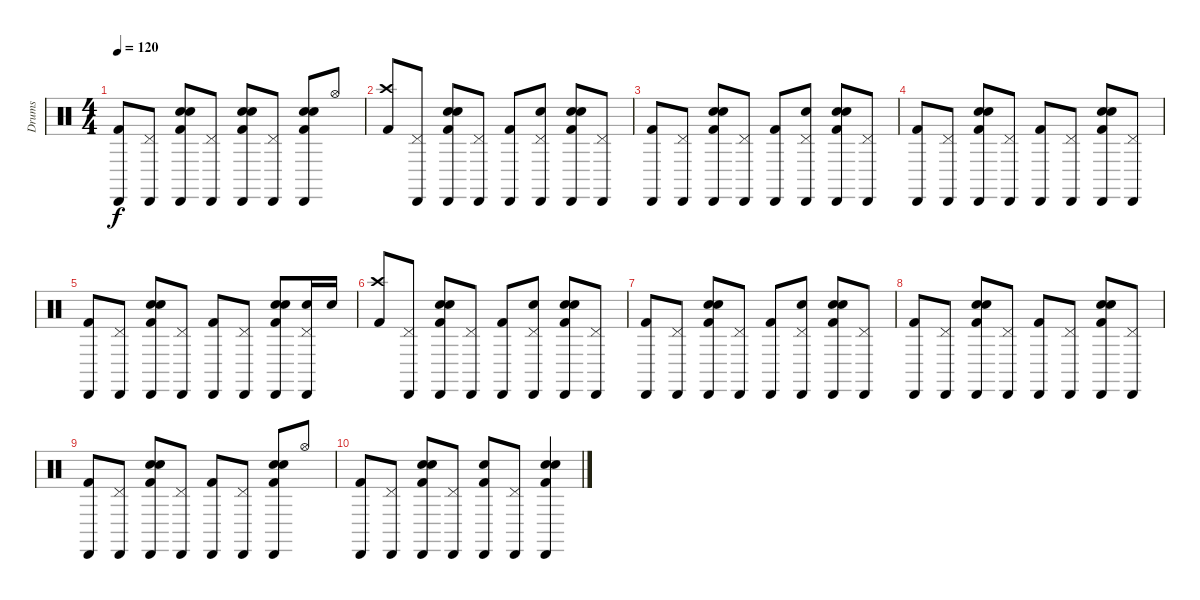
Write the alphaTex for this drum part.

\track ("Drums" "Drums") {instrument percussion}
\staff {score}
\articulation defaults
\ts (4 4)
\tempo 120
\clef neutral
\ks c
("Cabasa (hit)" "Kick (hit) 2").8{dy f} ("Cabasa (hit)" "Pedal Hi-Hat (hit)").8 ("Hand Clap (hit)" "Cabasa (hit)" "Electric Snare (hit)" "Kick (hit) 2").8 ("Cabasa (hit)" "Pedal Hi-Hat (hit)").8 ("Hand Clap (hit)" "Cabasa (hit)" "Electric Snare (hit)" "Kick (hit) 2").8 ("Cabasa (hit)" "Pedal Hi-Hat (hit)").8 ("Hand Clap (hit)" "Cabasa (hit)" "Electric Snare (hit)" "Kick (hit) 2").8 "Hi-Hat (open)".8 |
("Crash high (hit)" "Kick (hit) 2").8 ("Cabasa (hit)" "Pedal Hi-Hat (hit)").8 ("Hand Clap (hit)" "Cabasa (hit)" "Electric Snare (hit)" "Kick (hit) 2").8 ("Cabasa (hit)" "Pedal Hi-Hat (hit)").8 ("Cabasa (hit)" "Kick (hit) 2").8 ("Hand Clap (hit)" "Cabasa (hit)" "Pedal Hi-Hat (hit)").8 ("Hand Clap (hit)" "Cabasa (hit)" "Electric Snare (hit)" "Kick (hit) 2").8 ("Cabasa (hit)" "Pedal Hi-Hat (hit)").8 |
("Cabasa (hit)" "Kick (hit) 2").8 ("Cabasa (hit)" "Pedal Hi-Hat (hit)").8 ("Hand Clap (hit)" "Cabasa (hit)" "Electric Snare (hit)" "Kick (hit) 2").8 ("Cabasa (hit)" "Pedal Hi-Hat (hit)").8 ("Cabasa (hit)" "Kick (hit) 2").8 ("Hand Clap (hit)" "Cabasa (hit)" "Pedal Hi-Hat (hit)").8 ("Hand Clap (hit)" "Cabasa (hit)" "Electric Snare (hit)" "Kick (hit) 2").8 ("Cabasa (hit)" "Pedal Hi-Hat (hit)").8 |
("Cabasa (hit)" "Kick (hit) 2").8 ("Cabasa (hit)" "Pedal Hi-Hat (hit)").8 ("Hand Clap (hit)" "Cabasa (hit)" "Electric Snare (hit)" "Kick (hit) 2").8 ("Cabasa (hit)" "Pedal Hi-Hat (hit)").8 ("Cabasa (hit)" "Kick (hit) 2").8 ("Cabasa (hit)" "Pedal Hi-Hat (hit)").8 ("Hand Clap (hit)" "Cabasa (hit)" "Electric Snare (hit)" "Kick (hit) 2").8 ("Cabasa (hit)" "Pedal Hi-Hat (hit)").8 |
("Cabasa (hit)" "Kick (hit) 2").8 ("Cabasa (hit)" "Pedal Hi-Hat (hit)").8 ("Hand Clap (hit)" "Cabasa (hit)" "Electric Snare (hit)" "Kick (hit) 2").8 ("Cabasa (hit)" "Pedal Hi-Hat (hit)").8 ("Cabasa (hit)" "Kick (hit) 2").8 ("Cabasa (hit)" "Pedal Hi-Hat (hit)").8 ("Hand Clap (hit)" "Cabasa (hit)" "Electric Snare (hit)" "Kick (hit) 2").8 ("Cabasa (hit)" "Pedal Hi-Hat (hit)" "Electric Snare (hit)").16 "Electric Snare (hit)".16 |
("Crash high (hit)" "Kick (hit) 2").8 ("Cabasa (hit)" "Pedal Hi-Hat (hit)").8 ("Hand Clap (hit)" "Cabasa (hit)" "Electric Snare (hit)" "Kick (hit) 2").8 ("Cabasa (hit)" "Pedal Hi-Hat (hit)").8 ("Cabasa (hit)" "Kick (hit) 2").8 ("Hand Clap (hit)" "Cabasa (hit)" "Pedal Hi-Hat (hit)").8 ("Hand Clap (hit)" "Cabasa (hit)" "Electric Snare (hit)" "Kick (hit) 2").8 ("Cabasa (hit)" "Pedal Hi-Hat (hit)").8 |
("Cabasa (hit)" "Kick (hit) 2").8 ("Cabasa (hit)" "Pedal Hi-Hat (hit)").8 ("Hand Clap (hit)" "Cabasa (hit)" "Electric Snare (hit)" "Kick (hit) 2").8 ("Cabasa (hit)" "Pedal Hi-Hat (hit)").8 ("Cabasa (hit)" "Kick (hit) 2").8 ("Hand Clap (hit)" "Cabasa (hit)" "Pedal Hi-Hat (hit)").8 ("Hand Clap (hit)" "Cabasa (hit)" "Electric Snare (hit)" "Kick (hit) 2").8 ("Cabasa (hit)" "Pedal Hi-Hat (hit)").8 |
("Cabasa (hit)" "Kick (hit) 2").8 ("Cabasa (hit)" "Pedal Hi-Hat (hit)").8 ("Hand Clap (hit)" "Cabasa (hit)" "Electric Snare (hit)" "Kick (hit) 2").8 ("Cabasa (hit)" "Pedal Hi-Hat (hit)").8 ("Cabasa (hit)" "Kick (hit) 2").8 ("Cabasa (hit)" "Pedal Hi-Hat (hit)").8 ("Hand Clap (hit)" "Cabasa (hit)" "Electric Snare (hit)" "Kick (hit) 2").8 ("Cabasa (hit)" "Pedal Hi-Hat (hit)").8 |
("Cabasa (hit)" "Kick (hit) 2").8 ("Cabasa (hit)" "Pedal Hi-Hat (hit)").8 ("Hand Clap (hit)" "Cabasa (hit)" "Electric Snare (hit)" "Kick (hit) 2").8 ("Cabasa (hit)" "Pedal Hi-Hat (hit)").8 ("Cabasa (hit)" "Kick (hit) 2").8 ("Cabasa (hit)" "Pedal Hi-Hat (hit)").8 ("Hand Clap (hit)" "Cabasa (hit)" "Electric Snare (hit)" "Kick (hit) 2").8 "Hi-Hat (open)".8 |
("Cabasa (hit)" "Kick (hit) 2").8 ("Cabasa (hit)" "Pedal Hi-Hat (hit)").8 ("Hand Clap (hit)" "Cabasa (hit)" "Electric Snare (hit)" "Kick (hit) 2").8 ("Cabasa (hit)" "Pedal Hi-Hat (hit)").8 ("Cabasa (hit)" "Electric Snare (hit)" "Kick (hit) 2").8 ("Cabasa (hit)" "Pedal Hi-Hat (hit)").8 ("Hand Clap (hit)" "Cabasa (hit)" "Electric Snare (hit)" "Kick (hit) 2").4
